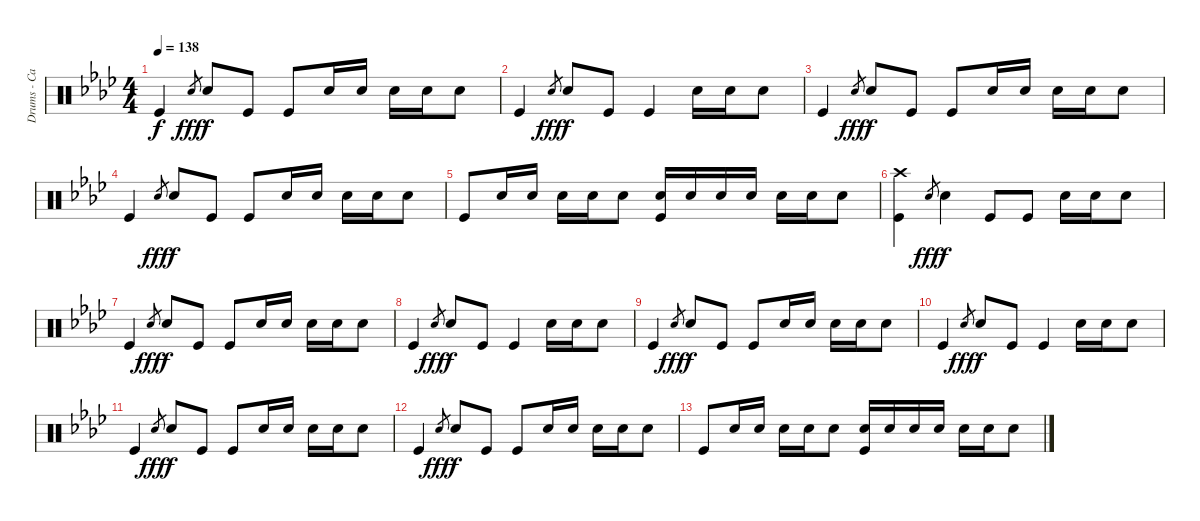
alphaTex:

\track ("Drums - Carl Palmer" "Drums - Ca") {instrument percussion}
\staff {score}
\articulation defaults
\ts (4 4)
\tempo 138
\clef neutral
\ks ab "Kick (hit)".4{dy f} "Snare (hit) 2".8{gr dy fff} "Snare (hit) 2".8{dy f} "Kick (hit)".8 "Kick (hit)".8 "Snare (hit) 2".16 "Snare (hit) 2".16 "Snare (hit) 2".16 "Snare (hit) 2".16 "Snare (hit) 2".8
|
"Kick (hit)".4 "Snare (hit) 2".8{gr dy fff} "Snare (hit) 2".8{dy f} "Kick (hit)".8 "Kick (hit)".4 "Snare (hit) 2".16 "Snare (hit) 2".16 "Snare (hit) 2".8 |
"Kick (hit)".4 "Snare (hit) 2".8{gr dy fff} "Snare (hit) 2".8{dy f} "Kick (hit)".8 "Kick (hit)".8 "Snare (hit) 2".16 "Snare (hit) 2".16 "Snare (hit) 2".16 "Snare (hit) 2".16 "Snare (hit) 2".8 |
"Kick (hit)".4 "Snare (hit) 2".8{gr dy fff} "Snare (hit) 2".8{dy f} "Kick (hit)".8 "Kick (hit)".8 "Snare (hit) 2".16 "Snare (hit) 2".16 "Snare (hit) 2".16 "Snare (hit) 2".16 "Snare (hit) 2".8 |
"Kick (hit)".8 "Snare (hit) 2".16 "Snare (hit) 2".16 "Snare (hit) 2".16 "Snare (hit) 2".16 "Snare (hit) 2".8 ("Snare (hit) 2" "Kick (hit)").16 "Snare (hit) 2".16 "Snare (hit) 2".16 "Snare (hit) 2".16 "Snare (hit) 2".16 "Snare (hit) 2".16 "Snare (hit) 2".8 |
("Crash high (hit)" "Kick (hit)").4{volume 10} "Snare (hit) 2".8{gr dy fff} "Snare (hit) 2".4{dy f} "Kick (hit)".8 "Kick (hit)".8 "Snare (hit) 2".16 "Snare (hit) 2".16 "Snare (hit) 2".8 |
"Kick (hit)".4 "Snare (hit) 2".8{gr dy fff} "Snare (hit) 2".8{dy f} "Kick (hit)".8 "Kick (hit)".8 "Snare (hit) 2".16 "Snare (hit) 2".16 "Snare (hit) 2".16 "Snare (hit) 2".16 "Snare (hit) 2".8 |
"Kick (hit)".4{volume 8} "Snare (hit) 2".8{gr dy fff} "Snare (hit) 2".8{dy f} "Kick (hit)".8 "Kick (hit)".4 "Snare (hit) 2".16 "Snare (hit) 2".16 "Snare (hit) 2".8 |
"Kick (hit)".4{volume 7} "Snare (hit) 2".8{gr dy fff} "Snare (hit) 2".8{dy f} "Kick (hit)".8 "Kick (hit)".8 "Snare (hit) 2".16 "Snare (hit) 2".16 "Snare (hit) 2".16 "Snare (hit) 2".16 "Snare (hit) 2".8 |
"Kick (hit)".4{volume 5} "Snare (hit) 2".8{gr dy fff} "Snare (hit) 2".8{dy f} "Kick (hit)".8 "Kick (hit)".4 "Snare (hit) 2".16 "Snare (hit) 2".16 "Snare (hit) 2".8 |
"Kick (hit)".4{volume 3} "Snare (hit) 2".8{gr dy fff} "Snare (hit) 2".8{dy f} "Kick (hit)".8 "Kick (hit)".8 "Snare (hit) 2".16 "Snare (hit) 2".16 "Snare (hit) 2".16 "Snare (hit) 2".16 "Snare (hit) 2".8 |
"Kick (hit)".4 "Snare (hit) 2".8{gr dy fff} "Snare (hit) 2".8{dy f} "Kick (hit)".8 "Kick (hit)".8 "Snare (hit) 2".16 "Snare (hit) 2".16 "Snare (hit) 2".16 "Snare (hit) 2".16 "Snare (hit) 2".8 |
"Kick (hit)".8 "Snare (hit) 2".16 "Snare (hit) 2".16 "Snare (hit) 2".16 "Snare (hit) 2".16 "Snare (hit) 2".8 ("Snare (hit) 2" "Kick (hit)").16 "Snare (hit) 2".16 "Snare (hit) 2".16 "Snare (hit) 2".16 "Snare (hit) 2".16 "Snare (hit) 2".16 "Snare (hit) 2".8
